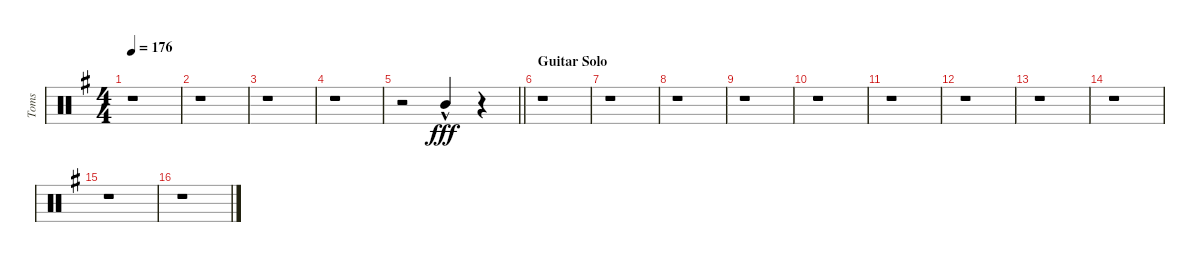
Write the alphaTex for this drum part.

\track ("Toms" "Toms") {instrument percussion}
\staff {score}
\articulation defaults
\ts (4 4)
\tempo 176
\clef neutral
\ks eminor
r.1{dy fff} |
r.1 |
r.1 |
r.1 |
\barLineRight lightlight
r.2 "Mid Tom (hit)"{hac}.4{beam Up} r.4 |
\section ("" "Guitar Solo")
r.1 |
r.1 |
r.1 |
r.1 |
r.1 |
r.1 |
r.1 |
r.1 |
r.1 |
r.1 |
r.1
